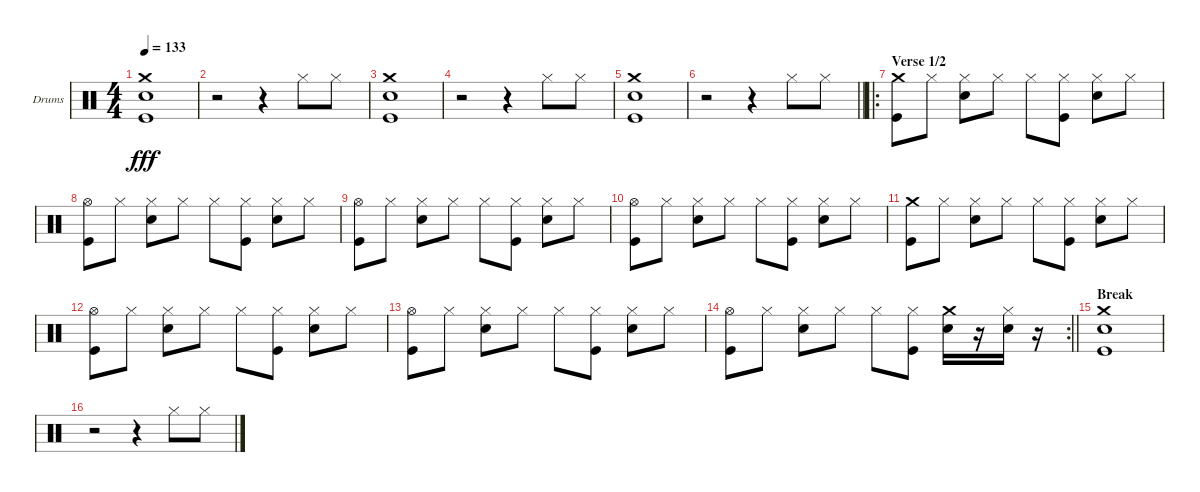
\bracketExtendMode groupsimilarinstruments
\firstSystemTrackNameOrientation horizontal
\otherSystemsTrackNameOrientation horizontal
\track ("Drumkit" "Drums") {instrument percussion}
\staff {score}
\articulation defaults
\ts (4 4)
\tempo 133
\clef neutral
\ks c
("Crash medium (hit)" "Snare (hit) 2" "Kick (hit)").1{dy fff} |
r.2 r.4 "Hi-Hat (closed)".8 "Hi-Hat (closed)".8 |
("Crash medium (hit)" "Snare (hit) 2" "Kick (hit)").1 |
r.2 r.4 "Hi-Hat (closed)".8 "Hi-Hat (closed)".8 |
("Crash medium (hit)" "Snare (hit) 2" "Kick (hit)").1 |
\barLineRight lightlight
r.2 r.4 "Hi-Hat (closed)".8 "Hi-Hat (closed)".8 |
\ro
\section ("" "Verse 1/2")
("Crash medium (hit)" "Kick (hit)").8 "Hi-Hat (closed)".8 ("Hi-Hat (closed)" "Snare (hit) 2").8 "Hi-Hat (closed)".8 "Hi-Hat (closed)".8 ("Hi-Hat (closed)" "Kick (hit)").8 ("Hi-Hat (closed)" "Snare (hit) 2").8 "Hi-Hat (closed)".8 |
("Hi-Hat (open)" "Kick (hit)").8 "Hi-Hat (closed)".8 ("Hi-Hat (closed)" "Snare (hit) 2").8 "Hi-Hat (closed)".8 "Hi-Hat (closed)".8 ("Hi-Hat (closed)" "Kick (hit)").8 ("Hi-Hat (closed)" "Snare (hit) 2").8 "Hi-Hat (closed)".8 |
("Hi-Hat (open)" "Kick (hit)").8 "Hi-Hat (closed)".8 ("Hi-Hat (closed)" "Snare (hit) 2").8 "Hi-Hat (closed)".8 "Hi-Hat (closed)".8 ("Hi-Hat (closed)" "Kick (hit)").8 ("Hi-Hat (closed)" "Snare (hit) 2").8 "Hi-Hat (closed)".8 |
("Hi-Hat (open)" "Kick (hit)").8 "Hi-Hat (closed)".8 ("Hi-Hat (closed)" "Snare (hit) 2").8 "Hi-Hat (closed)".8 "Hi-Hat (closed)".8 ("Hi-Hat (closed)" "Kick (hit)").8 ("Hi-Hat (closed)" "Snare (hit) 2").8 "Hi-Hat (closed)".8 |
("Crash medium (hit)" "Kick (hit)").8 "Hi-Hat (closed)".8 ("Hi-Hat (closed)" "Snare (hit) 2").8 "Hi-Hat (closed)".8 "Hi-Hat (closed)".8 ("Hi-Hat (closed)" "Kick (hit)").8 ("Hi-Hat (closed)" "Snare (hit) 2").8 "Hi-Hat (closed)".8 |
("Hi-Hat (open)" "Kick (hit)").8 "Hi-Hat (closed)".8 ("Hi-Hat (closed)" "Snare (hit) 2").8 "Hi-Hat (closed)".8 "Hi-Hat (closed)".8 ("Hi-Hat (closed)" "Kick (hit)").8 ("Hi-Hat (closed)" "Snare (hit) 2").8 "Hi-Hat (closed)".8 |
("Hi-Hat (open)" "Kick (hit)").8 "Hi-Hat (closed)".8 ("Hi-Hat (closed)" "Snare (hit) 2").8 "Hi-Hat (closed)".8 "Hi-Hat (closed)".8 ("Hi-Hat (closed)" "Kick (hit)").8 ("Hi-Hat (closed)" "Snare (hit) 2").8 "Hi-Hat (closed)".8 |
\rc 2
\barLineRight lightlight
("Hi-Hat (open)" "Kick (hit)").8 "Hi-Hat (closed)".8 ("Hi-Hat (closed)" "Snare (hit) 2").8 "Hi-Hat (closed)".8 "Hi-Hat (closed)".8 ("Hi-Hat (closed)" "Kick (hit)").8 ("Crash medium (hit)" "Snare (hit) 2").16 r.16 ("Hi-Hat (closed)" "Snare (hit) 2").16 r.16 |
\section ("" "Break")
("Crash medium (hit)" "Snare (hit) 2" "Kick (hit)").1 |
r.2 r.4 "Hi-Hat (closed)".8 "Hi-Hat (closed)".8
